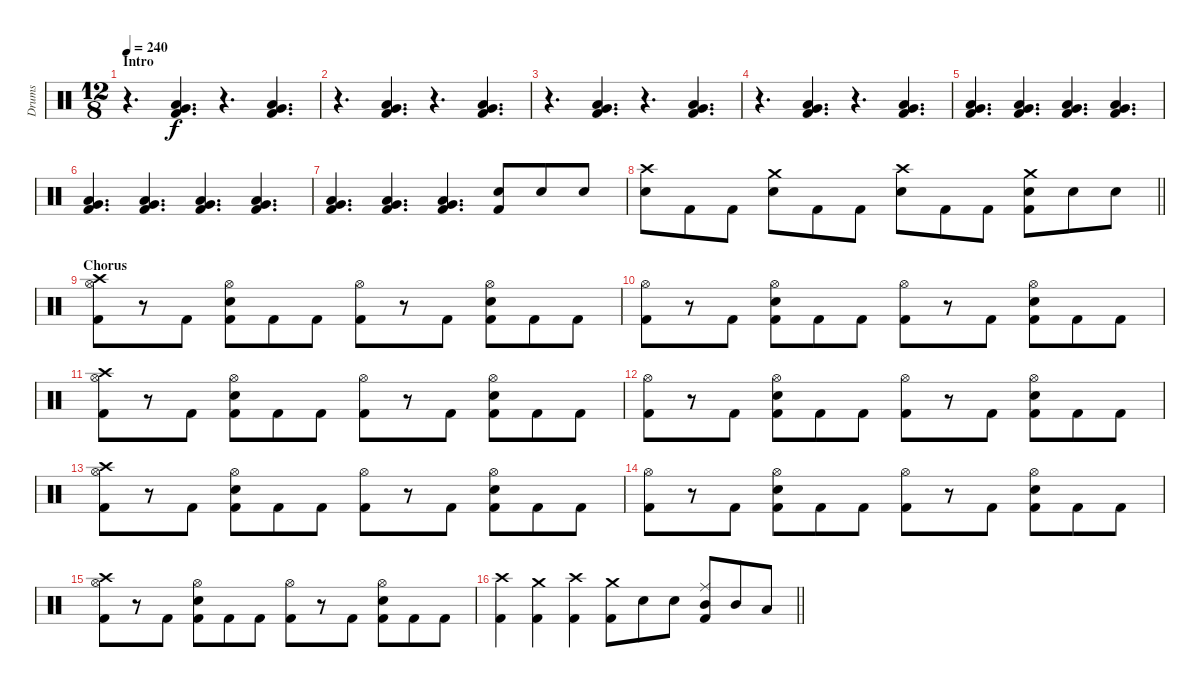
\track ("Drums" "Drums") {instrument percussion}
\staff {score}
\articulation defaults
\ts (12 8)
\section ("" "Intro")
\tempo 240
\clef neutral
\ks c
r.4{d dy f} ("Very Low Tom (hit)" "Low Floor Tom (hit)" "Kick (hit) 2").4{d} r.4{d} ("Very Low Tom (hit)" "Low Floor Tom (hit)" "Kick (hit) 2").4{d} |
r.4{d} ("Very Low Tom (hit)" "Low Floor Tom (hit)" "Kick (hit) 2").4{d} r.4{d} ("Very Low Tom (hit)" "Low Floor Tom (hit)" "Kick (hit) 2").4{d} |
r.4{d} ("Very Low Tom (hit)" "Low Floor Tom (hit)" "Kick (hit) 2").4{d} r.4{d} ("Very Low Tom (hit)" "Low Floor Tom (hit)" "Kick (hit) 2").4{d} |
r.4{d} ("Very Low Tom (hit)" "Low Floor Tom (hit)" "Kick (hit) 2").4{d} r.4{d} ("Very Low Tom (hit)" "Low Floor Tom (hit)" "Kick (hit) 2").4{d} |
("Very Low Tom (hit)" "Low Floor Tom (hit)" "Kick (hit) 2").4{d} ("Very Low Tom (hit)" "Low Floor Tom (hit)" "Kick (hit) 2").4{d} ("Very Low Tom (hit)" "Low Floor Tom (hit)" "Kick (hit) 2").4{d} ("Very Low Tom (hit)" "Low Floor Tom (hit)" "Kick (hit) 2").4{d} |
("Very Low Tom (hit)" "Low Floor Tom (hit)" "Kick (hit) 2").4{d} ("Very Low Tom (hit)" "Low Floor Tom (hit)" "Kick (hit) 2").4{d} ("Very Low Tom (hit)" "Low Floor Tom (hit)" "Kick (hit) 2").4{d} ("Very Low Tom (hit)" "Low Floor Tom (hit)" "Kick (hit) 2").4{d} |
("Very Low Tom (hit)" "Low Floor Tom (hit)" "Kick (hit) 2").4{d} ("Very Low Tom (hit)" "Low Floor Tom (hit)" "Kick (hit) 2").4{d} ("Very Low Tom (hit)" "Low Floor Tom (hit)" "Kick (hit) 2").4{d} ("Snare (hit) 2" "Kick (hit) 2").8 "Snare (hit) 2".8 "Snare (hit) 2".8 |
\barLineRight lightlight
("Crash high (hit)" "Snare (hit) 2").8 "Kick (hit) 2".8 "Kick (hit) 2".8 ("Crash medium (hit)" "Snare (hit) 2").8 "Kick (hit) 2".8 "Kick (hit) 2".8 ("Crash high (hit)" "Snare (hit) 2").8 "Kick (hit) 2".8 "Kick (hit) 2".8 ("Crash medium (hit)" "Snare (hit) 2" "Kick (hit) 2").8 "Snare (hit) 2".8 "Snare (hit) 2".8 |
\section ("" "Chorus")
("Crash high (hit)" "Hi-Hat (open)" "Kick (hit) 2").8 r.8 "Kick (hit) 2".8 ("Hi-Hat (open)" "Snare (hit) 2" "Kick (hit) 2").8 "Kick (hit) 2".8 "Kick (hit) 2".8 ("Hi-Hat (open)" "Kick (hit) 2").8 r.8 "Kick (hit) 2".8 ("Hi-Hat (open)" "Snare (hit) 2" "Kick (hit) 2").8 "Kick (hit) 2".8 "Kick (hit) 2".8 |
("Hi-Hat (open)" "Kick (hit) 2").8 r.8 "Kick (hit) 2".8 ("Hi-Hat (open)" "Snare (hit) 2" "Kick (hit) 2").8 "Kick (hit) 2".8 "Kick (hit) 2".8 ("Hi-Hat (open)" "Kick (hit) 2").8 r.8 "Kick (hit) 2".8 ("Hi-Hat (open)" "Snare (hit) 2" "Kick (hit) 2").8 "Kick (hit) 2".8 "Kick (hit) 2".8 |
("Crash high (hit)" "Hi-Hat (open)" "Kick (hit) 2").8 r.8 "Kick (hit) 2".8 ("Hi-Hat (open)" "Snare (hit) 2" "Kick (hit) 2").8 "Kick (hit) 2".8 "Kick (hit) 2".8 ("Hi-Hat (open)" "Kick (hit) 2").8 r.8 "Kick (hit) 2".8 ("Hi-Hat (open)" "Snare (hit) 2" "Kick (hit) 2").8 "Kick (hit) 2".8 "Kick (hit) 2".8 |
("Hi-Hat (open)" "Kick (hit) 2").8 r.8 "Kick (hit) 2".8 ("Hi-Hat (open)" "Snare (hit) 2" "Kick (hit) 2").8 "Kick (hit) 2".8 "Kick (hit) 2".8 ("Hi-Hat (open)" "Kick (hit) 2").8 r.8 "Kick (hit) 2".8 ("Hi-Hat (open)" "Snare (hit) 2" "Kick (hit) 2").8 "Kick (hit) 2".8 "Kick (hit) 2".8 |
("Crash high (hit)" "Hi-Hat (open)" "Kick (hit) 2").8 r.8 "Kick (hit) 2".8 ("Hi-Hat (open)" "Snare (hit) 2" "Kick (hit) 2").8 "Kick (hit) 2".8 "Kick (hit) 2".8 ("Hi-Hat (open)" "Kick (hit) 2").8 r.8 "Kick (hit) 2".8 ("Hi-Hat (open)" "Snare (hit) 2" "Kick (hit) 2").8 "Kick (hit) 2".8 "Kick (hit) 2".8 |
("Hi-Hat (open)" "Kick (hit) 2").8 r.8 "Kick (hit) 2".8 ("Hi-Hat (open)" "Snare (hit) 2" "Kick (hit) 2").8 "Kick (hit) 2".8 "Kick (hit) 2".8 ("Hi-Hat (open)" "Kick (hit) 2").8 r.8 "Kick (hit) 2".8 ("Hi-Hat (open)" "Snare (hit) 2" "Kick (hit) 2").8 "Kick (hit) 2".8 "Kick (hit) 2".8 |
("Crash high (hit)" "Hi-Hat (open)" "Kick (hit) 2").8 r.8 "Kick (hit) 2".8 ("Hi-Hat (open)" "Snare (hit) 2" "Kick (hit) 2").8 "Kick (hit) 2".8 "Kick (hit) 2".8 ("Hi-Hat (open)" "Kick (hit) 2").8 r.8 "Kick (hit) 2".8 ("Hi-Hat (open)" "Snare (hit) 2" "Kick (hit) 2").8 "Kick (hit) 2".8 "Kick (hit) 2".8 |
\barLineRight lightlight
("Crash high (hit)" "Kick (hit) 2").4 ("Crash medium (hit)" "Kick (hit) 2").4 ("Crash high (hit)" "Kick (hit) 2").4 ("Crash medium (hit)" "Kick (hit) 2").8 "Snare (hit) 2".8 "Snare (hit) 2".8 ("Ride (middle)" "Mid Tom (hit)" "Kick (hit) 2").8 "Mid Tom (hit)".8 "Low Tom (hit)".8
